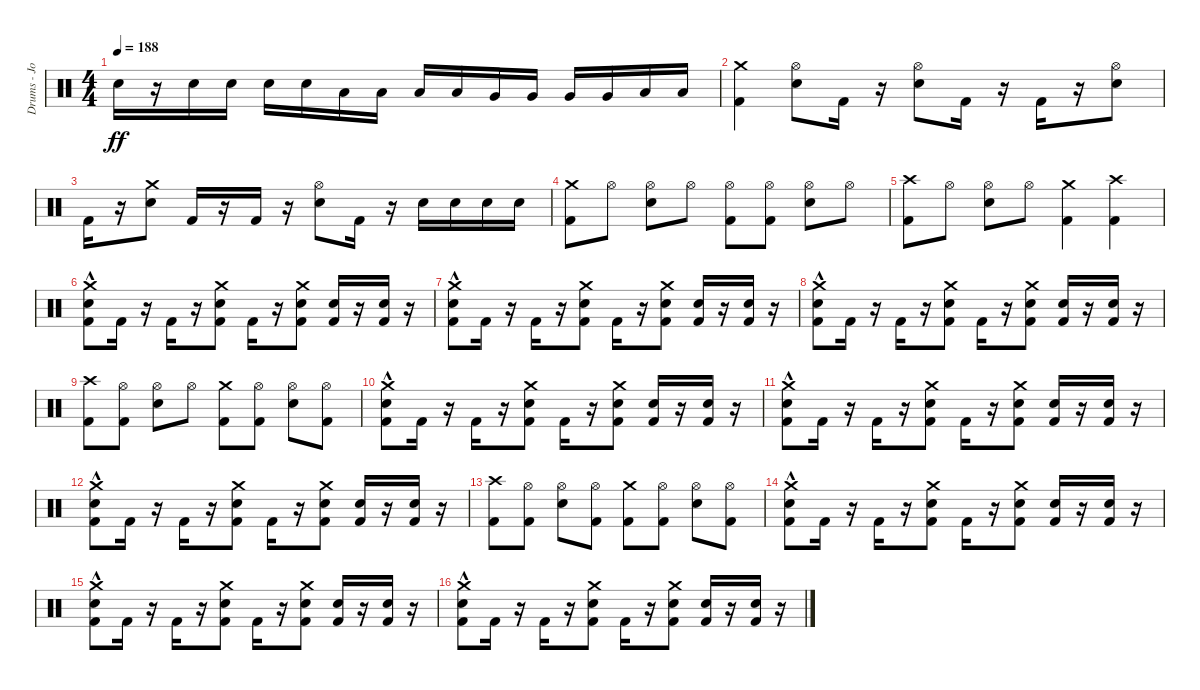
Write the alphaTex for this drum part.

\track ("Drums - Jordan" "Drums - Jo") {instrument percussion}
\staff {score}
\articulation defaults
\ts (4 4)
\tempo 188
\clef neutral
\ks c "Electric Snare (hit)".16{dy ff}
r.16 "Electric Snare (hit)".16 "Electric Snare (hit)".16 "Electric Snare (hit)".16 "Electric Snare (hit)".16 "Low Tom (hit)".16 "Low Tom (hit)".16 "Low Tom (hit)".16 "Low Tom (hit)".16 "Very Low Tom (hit)".16 "Very Low Tom (hit)".16 "Very Low Tom (hit)".16 "Very Low Tom (hit)".16 "Low Floor Tom (hit)".16 "Low Floor Tom (hit)".16 |
("Kick (hit) 2" "Crash medium (hit)").4 ("Electric Snare (hit)" "Hi-Hat (open)").8 "Kick (hit) 2".16 r.16 ("Electric Snare (hit)" "Hi-Hat (open)").8 "Kick (hit) 2".16 r.16 "Kick (hit) 2".16 r.16 ("Electric Snare (hit)" "Hi-Hat (open)").8 |
"Kick (hit) 2".16 r.16 ("Electric Snare (hit)" "Crash medium (hit)").8 "Kick (hit) 2".16 r.16 "Kick (hit) 2".16 r.16 ("Electric Snare (hit)" "Hi-Hat (open)").8 "Kick (hit) 2".16 r.16 "Electric Snare (hit)".16 "Electric Snare (hit)".16 "Electric Snare (hit)".16 "Electric Snare (hit)".16 |
("Kick (hit) 2" "Crash medium (hit)").8 "Hi-Hat (open)".8 ("Electric Snare (hit)" "Hi-Hat (open)").8 "Hi-Hat (open)".8 ("Hi-Hat (open)" "Kick (hit) 2").8 ("Kick (hit) 2" "Hi-Hat (open)").8 ("Electric Snare (hit)" "Hi-Hat (open)").8 "Hi-Hat (open)".8 |
("Kick (hit) 2" "Crash high (hit)").8 "Hi-Hat (open)".8 ("Electric Snare (hit)" "Hi-Hat (open)").8 "Hi-Hat (open)".8 ("Kick (hit) 2" "Crash medium (hit)").4 ("Kick (hit) 2" "Crash high (hit)").4 |
("Electric Snare (hit)" "Kick (hit) 2" "Crash medium (hit)"{hac}).8 "Kick (hit) 2".16 r.16 "Kick (hit) 2".16 r.16 ("Electric Snare (hit)" "Kick (hit) 2" "Crash medium (hit)").8 "Kick (hit) 2".16 r.16 ("Electric Snare (hit)" "Kick (hit) 2" "Crash medium (hit)").8 ("Electric Snare (hit)" "Kick (hit) 2").16 r.16 ("Electric Snare (hit)" "Kick (hit) 2").16 r.16 |
("Electric Snare (hit)" "Kick (hit) 2" "Crash medium (hit)"{hac}).8 "Kick (hit) 2".16 r.16 "Kick (hit) 2".16 r.16 ("Electric Snare (hit)" "Kick (hit) 2" "Crash medium (hit)").8 "Kick (hit) 2".16 r.16 ("Electric Snare (hit)" "Kick (hit) 2" "Crash medium (hit)").8 ("Electric Snare (hit)" "Kick (hit) 2").16 r.16 ("Electric Snare (hit)" "Kick (hit) 2").16 r.16 |
("Electric Snare (hit)" "Kick (hit) 2" "Crash medium (hit)"{hac}).8 "Kick (hit) 2".16 r.16 "Kick (hit) 2".16 r.16 ("Electric Snare (hit)" "Kick (hit) 2" "Crash medium (hit)").8 "Kick (hit) 2".16 r.16 ("Electric Snare (hit)" "Kick (hit) 2" "Crash medium (hit)").8 ("Electric Snare (hit)" "Kick (hit) 2").16 r.16 ("Electric Snare (hit)" "Kick (hit) 2").16 r.16 |
("Kick (hit) 2" "Crash high (hit)").8 ("Kick (hit) 2" "Hi-Hat (open)").8 ("Electric Snare (hit)" "Hi-Hat (open)").8 "Hi-Hat (open)".8 ("Kick (hit) 2" "Crash medium (hit)").8 ("Kick (hit) 2" "Hi-Hat (open)").8 ("Electric Snare (hit)" "Hi-Hat (open)").8 ("Kick (hit) 2" "Hi-Hat (open)").8 |
("Electric Snare (hit)" "Kick (hit) 2" "Crash medium (hit)"{hac}).8 "Kick (hit) 2".16 r.16 "Kick (hit) 2".16 r.16 ("Electric Snare (hit)" "Kick (hit) 2" "Crash medium (hit)").8 "Kick (hit) 2".16 r.16 ("Electric Snare (hit)" "Kick (hit) 2" "Crash medium (hit)").8 ("Electric Snare (hit)" "Kick (hit) 2").16 r.16 ("Electric Snare (hit)" "Kick (hit) 2").16 r.16 |
("Electric Snare (hit)" "Kick (hit) 2" "Crash medium (hit)"{hac}).8 "Kick (hit) 2".16 r.16 "Kick (hit) 2".16 r.16 ("Electric Snare (hit)" "Kick (hit) 2" "Crash medium (hit)").8 "Kick (hit) 2".16 r.16 ("Electric Snare (hit)" "Kick (hit) 2" "Crash medium (hit)").8 ("Electric Snare (hit)" "Kick (hit) 2").16 r.16 ("Electric Snare (hit)" "Kick (hit) 2").16 r.16 |
("Electric Snare (hit)" "Kick (hit) 2" "Crash medium (hit)"{hac}).8 "Kick (hit) 2".16 r.16 "Kick (hit) 2".16 r.16 ("Electric Snare (hit)" "Kick (hit) 2" "Crash medium (hit)").8 "Kick (hit) 2".16 r.16 ("Electric Snare (hit)" "Kick (hit) 2" "Crash medium (hit)").8 ("Electric Snare (hit)" "Kick (hit) 2").16 r.16 ("Electric Snare (hit)" "Kick (hit) 2").16 r.16 |
("Kick (hit) 2" "Crash high (hit)").8 ("Kick (hit) 2" "Hi-Hat (open)").8 ("Electric Snare (hit)" "Hi-Hat (open)").8 ("Kick (hit) 2" "Hi-Hat (open)").8 ("Kick (hit) 2" "Crash medium (hit)").8 ("Kick (hit) 2" "Hi-Hat (open)").8 ("Electric Snare (hit)" "Hi-Hat (open)").8 ("Kick (hit) 2" "Hi-Hat (open)").8 |
("Electric Snare (hit)" "Kick (hit) 2" "Crash medium (hit)"{hac}).8 "Kick (hit) 2".16 r.16 "Kick (hit) 2".16 r.16 ("Electric Snare (hit)" "Kick (hit) 2" "Crash medium (hit)").8 "Kick (hit) 2".16 r.16 ("Electric Snare (hit)" "Kick (hit) 2" "Crash medium (hit)").8 ("Electric Snare (hit)" "Kick (hit) 2").16 r.16 ("Electric Snare (hit)" "Kick (hit) 2").16 r.16 |
("Electric Snare (hit)" "Kick (hit) 2" "Crash medium (hit)"{hac}).8 "Kick (hit) 2".16 r.16 "Kick (hit) 2".16 r.16 ("Electric Snare (hit)" "Kick (hit) 2" "Crash medium (hit)").8 "Kick (hit) 2".16 r.16 ("Electric Snare (hit)" "Kick (hit) 2" "Crash medium (hit)").8 ("Electric Snare (hit)" "Kick (hit) 2").16 r.16 ("Electric Snare (hit)" "Kick (hit) 2").16 r.16 |
("Electric Snare (hit)" "Kick (hit) 2" "Crash medium (hit)"{hac}).8 "Kick (hit) 2".16 r.16 "Kick (hit) 2".16 r.16 ("Electric Snare (hit)" "Kick (hit) 2" "Crash medium (hit)").8 "Kick (hit) 2".16 r.16 ("Electric Snare (hit)" "Kick (hit) 2" "Crash medium (hit)").8 ("Electric Snare (hit)" "Kick (hit) 2").16 r.16 ("Electric Snare (hit)" "Kick (hit) 2").16 r.16
